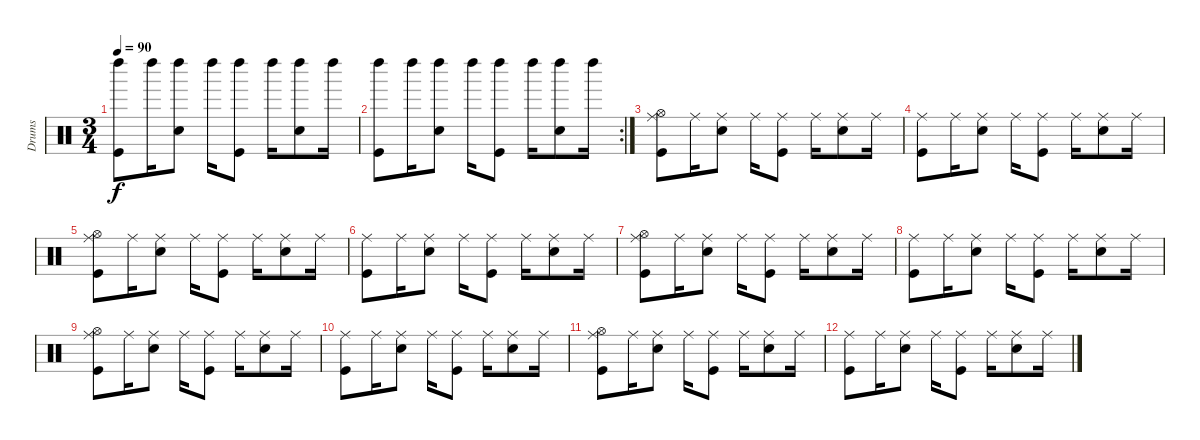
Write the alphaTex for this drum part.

\track ("Drums" "Drums") {instrument percussion}
\staff {score}
\articulation defaults
\ts (3 4)
\tempo 90
\clef neutral
\ks c
("Left Maraca (hit)" "Kick (hit)").8{dy f} "Left Maraca (hit)".16 ("Left Maraca (hit)" "Snare (hit) 2").8 "Left Maraca (hit)".16 ("Left Maraca (hit)" "Kick (hit)").8 "Left Maraca (hit)".16 ("Left Maraca (hit)" "Snare (hit) 2").8 "Left Maraca (hit)".16 |
\rc 2
("Left Maraca (hit)" "Kick (hit)").8 "Left Maraca (hit)".16 ("Left Maraca (hit)" "Snare (hit) 2").8 "Left Maraca (hit)".16 ("Left Maraca (hit)" "Kick (hit)").8 "Left Maraca (hit)".16 ("Left Maraca (hit)" "Snare (hit) 2").8 "Left Maraca (hit)".16 |
("Ride (middle)" "Hi-Hat (open)" "Kick (hit)").8 "Ride (middle)".16 ("Ride (middle)" "Snare (hit) 2").8 "Ride (middle)".16 ("Ride (middle)" "Kick (hit)").8 "Ride (middle)".16 ("Ride (middle)" "Snare (hit) 2").8 "Ride (middle)".16 |
("Ride (middle)" "Kick (hit)").8 "Ride (middle)".16 ("Ride (middle)" "Snare (hit) 2").8 "Ride (middle)".16 ("Ride (middle)" "Kick (hit)").8 "Ride (middle)".16 ("Ride (middle)" "Snare (hit) 2").8 "Ride (middle)".16 |
("Ride (middle)" "Hi-Hat (open)" "Kick (hit)").8 "Ride (middle)".16 ("Ride (middle)" "Snare (hit) 2").8 "Ride (middle)".16 ("Ride (middle)" "Kick (hit)").8 "Ride (middle)".16 ("Ride (middle)" "Snare (hit) 2").8 "Ride (middle)".16 |
("Ride (middle)" "Kick (hit)").8 "Ride (middle)".16 ("Ride (middle)" "Snare (hit) 2").8 "Ride (middle)".16 ("Ride (middle)" "Kick (hit)").8 "Ride (middle)".16 ("Ride (middle)" "Snare (hit) 2").8 "Ride (middle)".16 |
("Ride (middle)" "Hi-Hat (open)" "Kick (hit)").8 "Ride (middle)".16 ("Ride (middle)" "Snare (hit) 2").8 "Ride (middle)".16 ("Ride (middle)" "Kick (hit)").8 "Ride (middle)".16 ("Ride (middle)" "Snare (hit) 2").8 "Ride (middle)".16 |
("Ride (middle)" "Kick (hit)").8 "Ride (middle)".16 ("Ride (middle)" "Snare (hit) 2").8 "Ride (middle)".16 ("Ride (middle)" "Kick (hit)").8 "Ride (middle)".16 ("Ride (middle)" "Snare (hit) 2").8 "Ride (middle)".16 |
("Ride (middle)" "Hi-Hat (open)" "Kick (hit)").8 "Ride (middle)".16 ("Ride (middle)" "Snare (hit) 2").8 "Ride (middle)".16 ("Ride (middle)" "Kick (hit)").8 "Ride (middle)".16 ("Ride (middle)" "Snare (hit) 2").8 "Ride (middle)".16 |
("Ride (middle)" "Kick (hit)").8 "Ride (middle)".16 ("Ride (middle)" "Snare (hit) 2").8 "Ride (middle)".16 ("Ride (middle)" "Kick (hit)").8 "Ride (middle)".16 ("Ride (middle)" "Snare (hit) 2").8 "Ride (middle)".16 |
("Ride (middle)" "Hi-Hat (open)" "Kick (hit)").8 "Ride (middle)".16 ("Ride (middle)" "Snare (hit) 2").8 "Ride (middle)".16 ("Ride (middle)" "Kick (hit)").8 "Ride (middle)".16 ("Ride (middle)" "Snare (hit) 2").8 "Ride (middle)".16 |
("Ride (middle)" "Kick (hit)").8 "Ride (middle)".16 ("Ride (middle)" "Snare (hit) 2").8 "Ride (middle)".16 ("Ride (middle)" "Kick (hit)").8 "Ride (middle)".16 ("Ride (middle)" "Snare (hit) 2").8 "Ride (middle)".16
